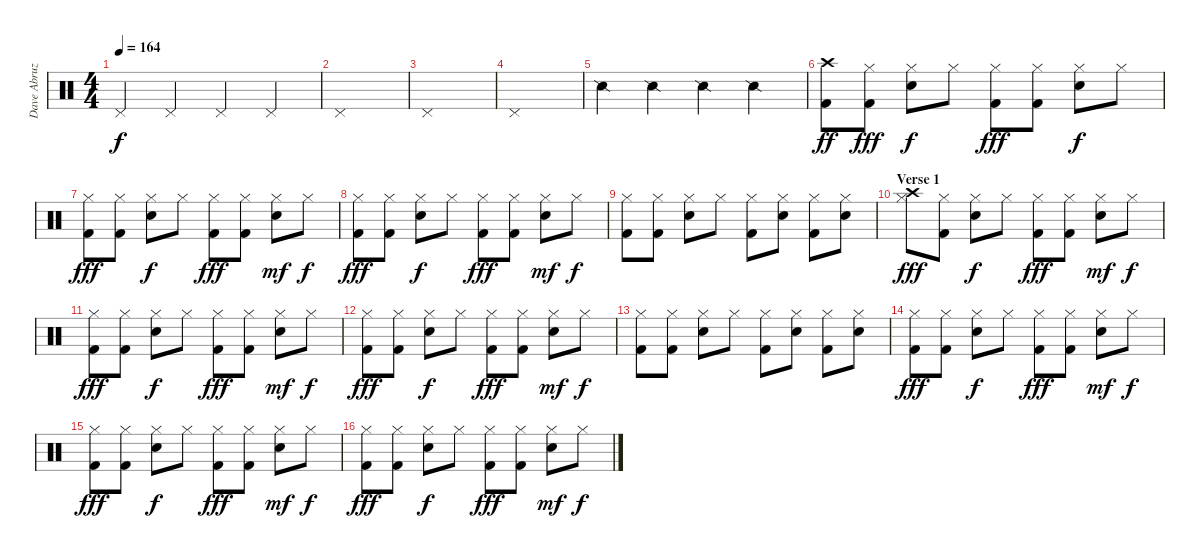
\track ("Dave Abruzzese" "Dave Abruz") {instrument percussion}
\staff {score}
\articulation defaults
\ts (4 4)
\tempo 164
\clef neutral
\ks c "Pedal Hi-Hat (hit)".4{dy f} "Pedal Hi-Hat (hit)".4 "Pedal Hi-Hat (hit)".4 "Pedal Hi-Hat (hit)".4
|
"Pedal Hi-Hat (hit)".1 |
"Pedal Hi-Hat (hit)".1 |
"Pedal Hi-Hat (hit)".1 |
"Snare (side stick) 2".4 "Snare (side stick) 2".4 "Snare (side stick) 2".4 "Snare (side stick) 2".4 |
("Kick (hit) 2" "Crash high (hit)").8{dy ff} ("Kick (hit) 2" "Hi-Hat (closed)").8{dy fff} ("Electric Snare (hit)" "Hi-Hat (closed)").8{dy f} "Hi-Hat (closed)".8 ("Kick (hit) 2" "Hi-Hat (closed)").8{dy fff} ("Kick (hit) 2" "Hi-Hat (closed)").8 ("Electric Snare (hit)" "Hi-Hat (closed)").8{dy f} "Hi-Hat (closed)".8 |
("Kick (hit) 2" "Hi-Hat (closed)").8{dy fff} ("Kick (hit) 2" "Hi-Hat (closed)").8 ("Electric Snare (hit)" "Hi-Hat (closed)").8{dy f} "Hi-Hat (closed)".8 ("Kick (hit) 2" "Hi-Hat (closed)").8{dy fff} ("Kick (hit) 2" "Hi-Hat (closed)").8 ("Electric Snare (hit)" "Hi-Hat (closed)").8{dy mf} "Hi-Hat (closed)".8{dy f} |
("Kick (hit) 2" "Hi-Hat (closed)").8{dy fff} ("Kick (hit) 2" "Hi-Hat (closed)").8 ("Electric Snare (hit)" "Hi-Hat (closed)").8{dy f} "Hi-Hat (closed)".8 ("Kick (hit) 2" "Hi-Hat (closed)").8{dy fff} ("Kick (hit) 2" "Hi-Hat (closed)").8 ("Electric Snare (hit)" "Hi-Hat (closed)").8{dy mf} "Hi-Hat (closed)".8{dy f} |
("Kick (hit) 2" "Hi-Hat (closed)").8 ("Kick (hit) 2" "Hi-Hat (closed)").8 ("Electric Snare (hit)" "Hi-Hat (closed)").8 "Hi-Hat (closed)".8 ("Kick (hit) 2" "Hi-Hat (closed)").8 ("Electric Snare (hit)" "Hi-Hat (closed)").8 ("Kick (hit) 2" "Hi-Hat (closed)").8 ("Electric Snare (hit)" "Hi-Hat (closed)").8 |
\section ("" "Verse 1")
("Crash high (hit)" "Hi-Hat (closed)").8{dy fff} ("Kick (hit) 2" "Hi-Hat (closed)").8 ("Electric Snare (hit)" "Hi-Hat (closed)").8{dy f} "Hi-Hat (closed)".8 ("Kick (hit) 2" "Hi-Hat (closed)").8{dy fff} ("Kick (hit) 2" "Hi-Hat (closed)").8 ("Electric Snare (hit)" "Hi-Hat (closed)").8{dy mf} "Hi-Hat (closed)".8{dy f} |
("Kick (hit) 2" "Hi-Hat (closed)").8{dy fff} ("Kick (hit) 2" "Hi-Hat (closed)").8 ("Electric Snare (hit)" "Hi-Hat (closed)").8{dy f} "Hi-Hat (closed)".8 ("Kick (hit) 2" "Hi-Hat (closed)").8{dy fff} ("Kick (hit) 2" "Hi-Hat (closed)").8 ("Electric Snare (hit)" "Hi-Hat (closed)").8{dy mf} "Hi-Hat (closed)".8{dy f} |
("Kick (hit) 2" "Hi-Hat (closed)").8{dy fff} ("Kick (hit) 2" "Hi-Hat (closed)").8 ("Electric Snare (hit)" "Hi-Hat (closed)").8{dy f} "Hi-Hat (closed)".8 ("Kick (hit) 2" "Hi-Hat (closed)").8{dy fff} ("Kick (hit) 2" "Hi-Hat (closed)").8 ("Electric Snare (hit)" "Hi-Hat (closed)").8{dy mf} "Hi-Hat (closed)".8{dy f} |
("Kick (hit) 2" "Hi-Hat (closed)").8 ("Kick (hit) 2" "Hi-Hat (closed)").8 ("Electric Snare (hit)" "Hi-Hat (closed)").8 "Hi-Hat (closed)".8 ("Kick (hit) 2" "Hi-Hat (closed)").8 ("Electric Snare (hit)" "Hi-Hat (closed)").8 ("Kick (hit) 2" "Hi-Hat (closed)").8 ("Electric Snare (hit)" "Hi-Hat (closed)").8 |
("Kick (hit) 2" "Hi-Hat (closed)").8{dy fff} ("Kick (hit) 2" "Hi-Hat (closed)").8 ("Electric Snare (hit)" "Hi-Hat (closed)").8{dy f} "Hi-Hat (closed)".8 ("Kick (hit) 2" "Hi-Hat (closed)").8{dy fff} ("Kick (hit) 2" "Hi-Hat (closed)").8 ("Electric Snare (hit)" "Hi-Hat (closed)").8{dy mf} "Hi-Hat (closed)".8{dy f} |
("Kick (hit) 2" "Hi-Hat (closed)").8{dy fff} ("Kick (hit) 2" "Hi-Hat (closed)").8 ("Electric Snare (hit)" "Hi-Hat (closed)").8{dy f} "Hi-Hat (closed)".8 ("Kick (hit) 2" "Hi-Hat (closed)").8{dy fff} ("Kick (hit) 2" "Hi-Hat (closed)").8 ("Electric Snare (hit)" "Hi-Hat (closed)").8{dy mf} "Hi-Hat (closed)".8{dy f} |
("Kick (hit) 2" "Hi-Hat (closed)").8{dy fff} ("Kick (hit) 2" "Hi-Hat (closed)").8 ("Electric Snare (hit)" "Hi-Hat (closed)").8{dy f} "Hi-Hat (closed)".8 ("Kick (hit) 2" "Hi-Hat (closed)").8{dy fff} ("Kick (hit) 2" "Hi-Hat (closed)").8 ("Electric Snare (hit)" "Hi-Hat (closed)").8{dy mf} "Hi-Hat (closed)".8{dy f}
